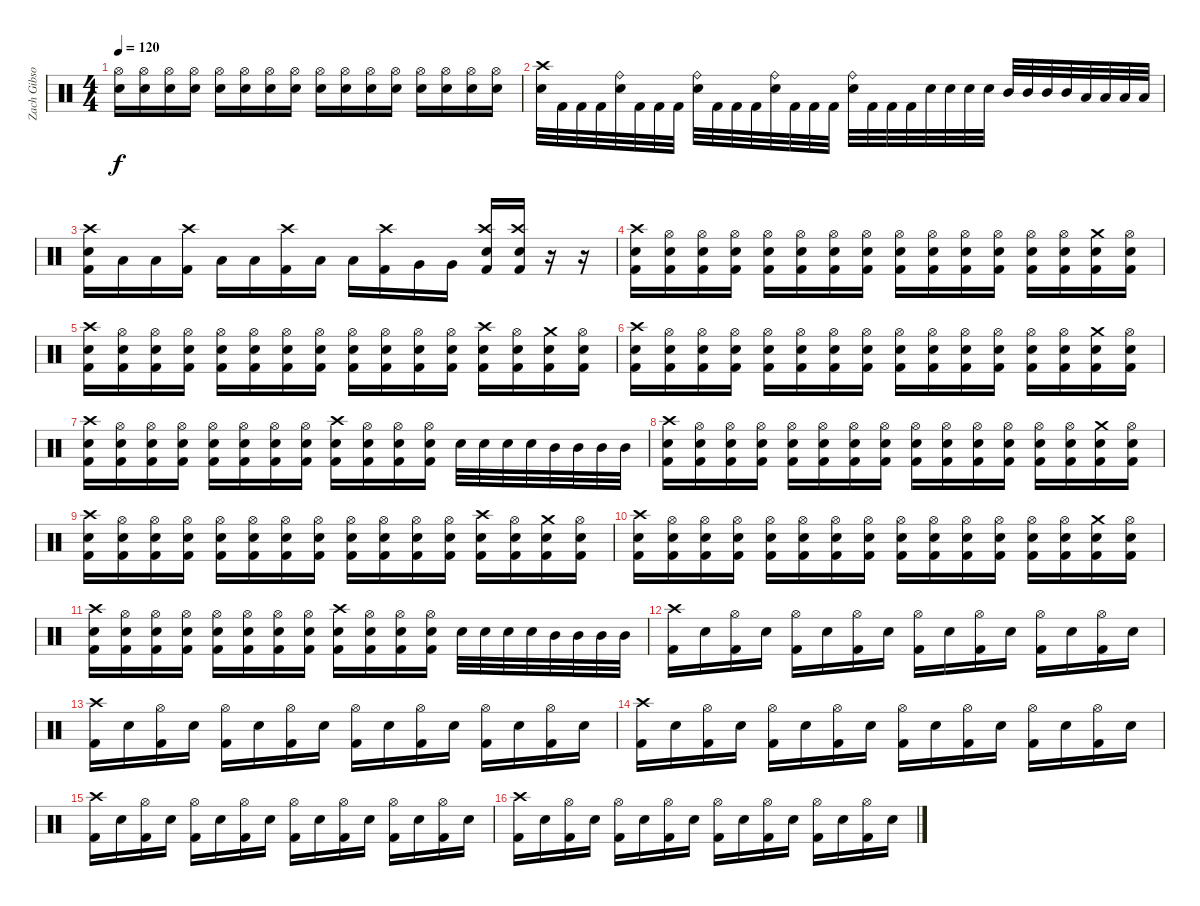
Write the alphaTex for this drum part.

\track ("Zach Gibson" "Zach Gibso") {instrument percussion}
\staff {score}
\articulation defaults
\ts (4 4)
\tempo 120
\clef neutral
\ks c
("Hi-Hat (open)" "Electric Snare (hit)").16{dy f} ("Hi-Hat (open)" "Electric Snare (hit)").16 ("Hi-Hat (open)" "Electric Snare (hit)").16 ("Hi-Hat (open)" "Electric Snare (hit)").16 ("Hi-Hat (open)" "Electric Snare (hit)").16 ("Hi-Hat (open)" "Electric Snare (hit)").16 ("Hi-Hat (open)" "Electric Snare (hit)").16 ("Hi-Hat (open)" "Electric Snare (hit)").16 ("Hi-Hat (open)" "Electric Snare (hit)").16 ("Hi-Hat (open)" "Electric Snare (hit)").16 ("Hi-Hat (open)" "Electric Snare (hit)").16 ("Hi-Hat (open)" "Electric Snare (hit)").16 ("Hi-Hat (open)" "Electric Snare (hit)").16 ("Hi-Hat (open)" "Electric Snare (hit)").16 ("Hi-Hat (open)" "Electric Snare (hit)").16 ("Hi-Hat (open)" "Electric Snare (hit)").16 |
("Crash high (hit)" "Electric Snare (hit)").32 "Kick (hit) 2".32 "Kick (hit) 2".32 "Kick (hit) 2".32 ("Ride (bell)" "Electric Snare (hit)").32 "Kick (hit) 2".32 "Kick (hit) 2".32 "Kick (hit) 2".32 ("Ride (bell)" "Electric Snare (hit)").32 "Kick (hit) 2".32 "Kick (hit) 2".32 "Kick (hit) 2".32 ("Ride (bell)" "Electric Snare (hit)").32 "Kick (hit) 2".32 "Kick (hit) 2".32 "Kick (hit) 2".32 ("Ride (bell)" "Electric Snare (hit)").32 "Kick (hit) 2".32 "Kick (hit) 2".32 "Kick (hit) 2".32 "Electric Snare (hit)".32 "Electric Snare (hit)".32 "Electric Snare (hit)".32 "Electric Snare (hit)".32 "Mid Tom (hit)".32 "Mid Tom (hit)".32 "Mid Tom (hit)".32 "Mid Tom (hit)".32 "Low Tom (hit)".32 "Low Tom (hit)".32 "Low Tom (hit)".32 "Low Tom (hit)".32 |
("Crash high (hit)" "Electric Snare (hit)" "Kick (hit) 2").16 "Low Tom (hit)".16 "Low Tom (hit)".16 ("Crash high (hit)" "Kick (hit) 2").16 "Low Tom (hit)".16 "Low Tom (hit)".16 ("Crash high (hit)" "Kick (hit) 2").16 "Low Tom (hit)".16 "Low Tom (hit)".16 ("Crash high (hit)" "Kick (hit) 2").16 "Very Low Tom (hit)".16 "Very Low Tom (hit)".16 ("Crash high (hit)" "Electric Snare (hit)" "Kick (hit) 2").16 ("Crash high (hit)" "Electric Snare (hit)" "Kick (hit) 2").16 r.16 r.16 |
("Crash high (hit)" "Electric Snare (hit)" "Kick (hit) 2").16 ("Hi-Hat (open)" "Electric Snare (hit)" "Kick (hit) 2").16 ("Hi-Hat (open)" "Electric Snare (hit)" "Kick (hit) 2").16 ("Hi-Hat (open)" "Electric Snare (hit)" "Kick (hit) 2").16 ("Hi-Hat (open)" "Electric Snare (hit)" "Kick (hit) 2").16 ("Hi-Hat (open)" "Electric Snare (hit)" "Kick (hit) 2").16 ("Hi-Hat (open)" "Electric Snare (hit)" "Kick (hit) 2").16 ("Hi-Hat (open)" "Electric Snare (hit)" "Kick (hit) 2").16 ("Hi-Hat (open)" "Electric Snare (hit)" "Kick (hit) 2").16 ("Hi-Hat (open)" "Electric Snare (hit)" "Kick (hit) 2").16 ("Hi-Hat (open)" "Electric Snare (hit)" "Kick (hit) 2").16 ("Hi-Hat (open)" "Electric Snare (hit)" "Kick (hit) 2").16 ("Hi-Hat (open)" "Electric Snare (hit)" "Kick (hit) 2").16 ("Hi-Hat (open)" "Electric Snare (hit)" "Kick (hit) 2").16 ("Crash medium (hit)" "Electric Snare (hit)" "Kick (hit) 2").16 ("Hi-Hat (open)" "Electric Snare (hit)" "Kick (hit) 2").16 |
("Crash high (hit)" "Electric Snare (hit)" "Kick (hit) 2").16 ("Hi-Hat (open)" "Electric Snare (hit)" "Kick (hit) 2").16 ("Hi-Hat (open)" "Electric Snare (hit)" "Kick (hit) 2").16 ("Hi-Hat (open)" "Electric Snare (hit)" "Kick (hit) 2").16 ("Hi-Hat (open)" "Electric Snare (hit)" "Kick (hit) 2").16 ("Hi-Hat (open)" "Electric Snare (hit)" "Kick (hit) 2").16 ("Hi-Hat (open)" "Electric Snare (hit)" "Kick (hit) 2").16 ("Hi-Hat (open)" "Electric Snare (hit)" "Kick (hit) 2").16 ("Hi-Hat (open)" "Electric Snare (hit)" "Kick (hit) 2").16 ("Hi-Hat (open)" "Electric Snare (hit)" "Kick (hit) 2").16 ("Hi-Hat (open)" "Electric Snare (hit)" "Kick (hit) 2").16 ("Hi-Hat (open)" "Electric Snare (hit)" "Kick (hit) 2").16 ("Crash high (hit)" "Electric Snare (hit)" "Kick (hit) 2").16 ("Hi-Hat (open)" "Electric Snare (hit)" "Kick (hit) 2").16 ("Crash medium (hit)" "Electric Snare (hit)" "Kick (hit) 2").16 ("Hi-Hat (open)" "Electric Snare (hit)" "Kick (hit) 2").16 |
("Crash high (hit)" "Electric Snare (hit)" "Kick (hit) 2").16 ("Hi-Hat (open)" "Electric Snare (hit)" "Kick (hit) 2").16 ("Hi-Hat (open)" "Electric Snare (hit)" "Kick (hit) 2").16 ("Hi-Hat (open)" "Electric Snare (hit)" "Kick (hit) 2").16 ("Hi-Hat (open)" "Electric Snare (hit)" "Kick (hit) 2").16 ("Hi-Hat (open)" "Electric Snare (hit)" "Kick (hit) 2").16 ("Hi-Hat (open)" "Electric Snare (hit)" "Kick (hit) 2").16 ("Hi-Hat (open)" "Electric Snare (hit)" "Kick (hit) 2").16 ("Hi-Hat (open)" "Electric Snare (hit)" "Kick (hit) 2").16 ("Hi-Hat (open)" "Electric Snare (hit)" "Kick (hit) 2").16 ("Hi-Hat (open)" "Electric Snare (hit)" "Kick (hit) 2").16 ("Hi-Hat (open)" "Electric Snare (hit)" "Kick (hit) 2").16 ("Hi-Hat (open)" "Electric Snare (hit)" "Kick (hit) 2").16 ("Hi-Hat (open)" "Electric Snare (hit)" "Kick (hit) 2").16 ("Crash medium (hit)" "Electric Snare (hit)" "Kick (hit) 2").16 ("Hi-Hat (open)" "Electric Snare (hit)" "Kick (hit) 2").16 |
("Crash high (hit)" "Electric Snare (hit)" "Kick (hit) 2").16 ("Hi-Hat (open)" "Electric Snare (hit)" "Kick (hit) 2").16 ("Hi-Hat (open)" "Electric Snare (hit)" "Kick (hit) 2").16 ("Hi-Hat (open)" "Electric Snare (hit)" "Kick (hit) 2").16 ("Hi-Hat (open)" "Electric Snare (hit)" "Kick (hit) 2").16 ("Hi-Hat (open)" "Electric Snare (hit)" "Kick (hit) 2").16 ("Hi-Hat (open)" "Electric Snare (hit)" "Kick (hit) 2").16 ("Hi-Hat (open)" "Electric Snare (hit)" "Kick (hit) 2").16 ("Crash high (hit)" "Electric Snare (hit)" "Kick (hit) 2").16 ("Hi-Hat (open)" "Electric Snare (hit)" "Kick (hit) 2").16 ("Hi-Hat (open)" "Electric Snare (hit)" "Kick (hit) 2").16 ("Hi-Hat (open)" "Electric Snare (hit)" "Kick (hit) 2").16 "Electric Snare (hit)".32 "Electric Snare (hit)".32 "Electric Snare (hit)".32 "Electric Snare (hit)".32 "Mid Tom (hit)".32 "Mid Tom (hit)".32 "Mid Tom (hit)".32 "Mid Tom (hit)".32 |
("Crash high (hit)" "Electric Snare (hit)" "Kick (hit) 2").16 ("Hi-Hat (open)" "Electric Snare (hit)" "Kick (hit) 2").16 ("Hi-Hat (open)" "Electric Snare (hit)" "Kick (hit) 2").16 ("Hi-Hat (open)" "Electric Snare (hit)" "Kick (hit) 2").16 ("Hi-Hat (open)" "Electric Snare (hit)" "Kick (hit) 2").16 ("Hi-Hat (open)" "Electric Snare (hit)" "Kick (hit) 2").16 ("Hi-Hat (open)" "Electric Snare (hit)" "Kick (hit) 2").16 ("Hi-Hat (open)" "Electric Snare (hit)" "Kick (hit) 2").16 ("Hi-Hat (open)" "Electric Snare (hit)" "Kick (hit) 2").16 ("Hi-Hat (open)" "Electric Snare (hit)" "Kick (hit) 2").16 ("Hi-Hat (open)" "Electric Snare (hit)" "Kick (hit) 2").16 ("Hi-Hat (open)" "Electric Snare (hit)" "Kick (hit) 2").16 ("Hi-Hat (open)" "Electric Snare (hit)" "Kick (hit) 2").16 ("Hi-Hat (open)" "Electric Snare (hit)" "Kick (hit) 2").16 ("Crash medium (hit)" "Electric Snare (hit)" "Kick (hit) 2").16 ("Hi-Hat (open)" "Electric Snare (hit)" "Kick (hit) 2").16 |
("Crash high (hit)" "Electric Snare (hit)" "Kick (hit) 2").16 ("Hi-Hat (open)" "Electric Snare (hit)" "Kick (hit) 2").16 ("Hi-Hat (open)" "Electric Snare (hit)" "Kick (hit) 2").16 ("Hi-Hat (open)" "Electric Snare (hit)" "Kick (hit) 2").16 ("Hi-Hat (open)" "Electric Snare (hit)" "Kick (hit) 2").16 ("Hi-Hat (open)" "Electric Snare (hit)" "Kick (hit) 2").16 ("Hi-Hat (open)" "Electric Snare (hit)" "Kick (hit) 2").16 ("Hi-Hat (open)" "Electric Snare (hit)" "Kick (hit) 2").16 ("Hi-Hat (open)" "Electric Snare (hit)" "Kick (hit) 2").16 ("Hi-Hat (open)" "Electric Snare (hit)" "Kick (hit) 2").16 ("Hi-Hat (open)" "Electric Snare (hit)" "Kick (hit) 2").16 ("Hi-Hat (open)" "Electric Snare (hit)" "Kick (hit) 2").16 ("Crash high (hit)" "Electric Snare (hit)" "Kick (hit) 2").16 ("Hi-Hat (open)" "Electric Snare (hit)" "Kick (hit) 2").16 ("Crash medium (hit)" "Electric Snare (hit)" "Kick (hit) 2").16 ("Hi-Hat (open)" "Electric Snare (hit)" "Kick (hit) 2").16 |
("Crash high (hit)" "Electric Snare (hit)" "Kick (hit) 2").16 ("Hi-Hat (open)" "Electric Snare (hit)" "Kick (hit) 2").16 ("Hi-Hat (open)" "Electric Snare (hit)" "Kick (hit) 2").16 ("Hi-Hat (open)" "Electric Snare (hit)" "Kick (hit) 2").16 ("Hi-Hat (open)" "Electric Snare (hit)" "Kick (hit) 2").16 ("Hi-Hat (open)" "Electric Snare (hit)" "Kick (hit) 2").16 ("Hi-Hat (open)" "Electric Snare (hit)" "Kick (hit) 2").16 ("Hi-Hat (open)" "Electric Snare (hit)" "Kick (hit) 2").16 ("Hi-Hat (open)" "Electric Snare (hit)" "Kick (hit) 2").16 ("Hi-Hat (open)" "Electric Snare (hit)" "Kick (hit) 2").16 ("Hi-Hat (open)" "Electric Snare (hit)" "Kick (hit) 2").16 ("Hi-Hat (open)" "Electric Snare (hit)" "Kick (hit) 2").16 ("Hi-Hat (open)" "Electric Snare (hit)" "Kick (hit) 2").16 ("Hi-Hat (open)" "Electric Snare (hit)" "Kick (hit) 2").16 ("Crash medium (hit)" "Electric Snare (hit)" "Kick (hit) 2").16 ("Hi-Hat (open)" "Electric Snare (hit)" "Kick (hit) 2").16 |
("Crash high (hit)" "Electric Snare (hit)" "Kick (hit) 2").16 ("Hi-Hat (open)" "Electric Snare (hit)" "Kick (hit) 2").16 ("Hi-Hat (open)" "Electric Snare (hit)" "Kick (hit) 2").16 ("Hi-Hat (open)" "Electric Snare (hit)" "Kick (hit) 2").16 ("Hi-Hat (open)" "Electric Snare (hit)" "Kick (hit) 2").16 ("Hi-Hat (open)" "Electric Snare (hit)" "Kick (hit) 2").16 ("Hi-Hat (open)" "Electric Snare (hit)" "Kick (hit) 2").16 ("Hi-Hat (open)" "Electric Snare (hit)" "Kick (hit) 2").16 ("Crash high (hit)" "Electric Snare (hit)" "Kick (hit) 2").16 ("Hi-Hat (open)" "Electric Snare (hit)" "Kick (hit) 2").16 ("Hi-Hat (open)" "Electric Snare (hit)" "Kick (hit) 2").16 ("Hi-Hat (open)" "Electric Snare (hit)" "Kick (hit) 2").16 "Electric Snare (hit)".32 "Electric Snare (hit)".32 "Electric Snare (hit)".32 "Electric Snare (hit)".32 "Mid Tom (hit)".32 "Mid Tom (hit)".32 "Mid Tom (hit)".32 "Mid Tom (hit)".32 |
("Crash high (hit)" "Kick (hit) 2").16 "Electric Snare (hit)".16 ("Hi-Hat (open)" "Kick (hit) 2").16 "Electric Snare (hit)".16 ("Hi-Hat (open)" "Kick (hit) 2").16 "Electric Snare (hit)".16 ("Hi-Hat (open)" "Kick (hit) 2").16 "Electric Snare (hit)".16 ("Hi-Hat (open)" "Kick (hit) 2").16 "Electric Snare (hit)".16 ("Hi-Hat (open)" "Kick (hit) 2").16 "Electric Snare (hit)".16 ("Hi-Hat (open)" "Kick (hit) 2").16 "Electric Snare (hit)".16 ("Hi-Hat (open)" "Kick (hit) 2").16 "Electric Snare (hit)".16 |
("Crash high (hit)" "Kick (hit) 2").16 "Electric Snare (hit)".16 ("Hi-Hat (open)" "Kick (hit) 2").16 "Electric Snare (hit)".16 ("Hi-Hat (open)" "Kick (hit) 2").16 "Electric Snare (hit)".16 ("Hi-Hat (open)" "Kick (hit) 2").16 "Electric Snare (hit)".16 ("Hi-Hat (open)" "Kick (hit) 2").16 "Electric Snare (hit)".16 ("Hi-Hat (open)" "Kick (hit) 2").16 "Electric Snare (hit)".16 ("Hi-Hat (open)" "Kick (hit) 2").16 "Electric Snare (hit)".16 ("Hi-Hat (open)" "Kick (hit) 2").16 "Electric Snare (hit)".16 |
("Crash high (hit)" "Kick (hit) 2").16 "Electric Snare (hit)".16 ("Hi-Hat (open)" "Kick (hit) 2").16 "Electric Snare (hit)".16 ("Hi-Hat (open)" "Kick (hit) 2").16 "Electric Snare (hit)".16 ("Hi-Hat (open)" "Kick (hit) 2").16 "Electric Snare (hit)".16 ("Hi-Hat (open)" "Kick (hit) 2").16 "Electric Snare (hit)".16 ("Hi-Hat (open)" "Kick (hit) 2").16 "Electric Snare (hit)".16 ("Hi-Hat (open)" "Kick (hit) 2").16 "Electric Snare (hit)".16 ("Hi-Hat (open)" "Kick (hit) 2").16 "Electric Snare (hit)".16 |
("Crash high (hit)" "Kick (hit) 2").16 "Electric Snare (hit)".16 ("Hi-Hat (open)" "Kick (hit) 2").16 "Electric Snare (hit)".16 ("Hi-Hat (open)" "Kick (hit) 2").16 "Electric Snare (hit)".16 ("Hi-Hat (open)" "Kick (hit) 2").16 "Electric Snare (hit)".16 ("Hi-Hat (open)" "Kick (hit) 2").16 "Electric Snare (hit)".16 ("Hi-Hat (open)" "Kick (hit) 2").16 "Electric Snare (hit)".16 ("Hi-Hat (open)" "Kick (hit) 2").16 "Electric Snare (hit)".16 ("Hi-Hat (open)" "Kick (hit) 2").16 "Electric Snare (hit)".16 |
("Crash high (hit)" "Kick (hit) 2").16 "Electric Snare (hit)".16 ("Hi-Hat (open)" "Kick (hit) 2").16 "Electric Snare (hit)".16 ("Hi-Hat (open)" "Kick (hit) 2").16 "Electric Snare (hit)".16 ("Hi-Hat (open)" "Kick (hit) 2").16 "Electric Snare (hit)".16 ("Hi-Hat (open)" "Kick (hit) 2").16 "Electric Snare (hit)".16 ("Hi-Hat (open)" "Kick (hit) 2").16 "Electric Snare (hit)".16 ("Hi-Hat (open)" "Kick (hit) 2").16 "Electric Snare (hit)".16 ("Hi-Hat (open)" "Kick (hit) 2").16 "Electric Snare (hit)".16
